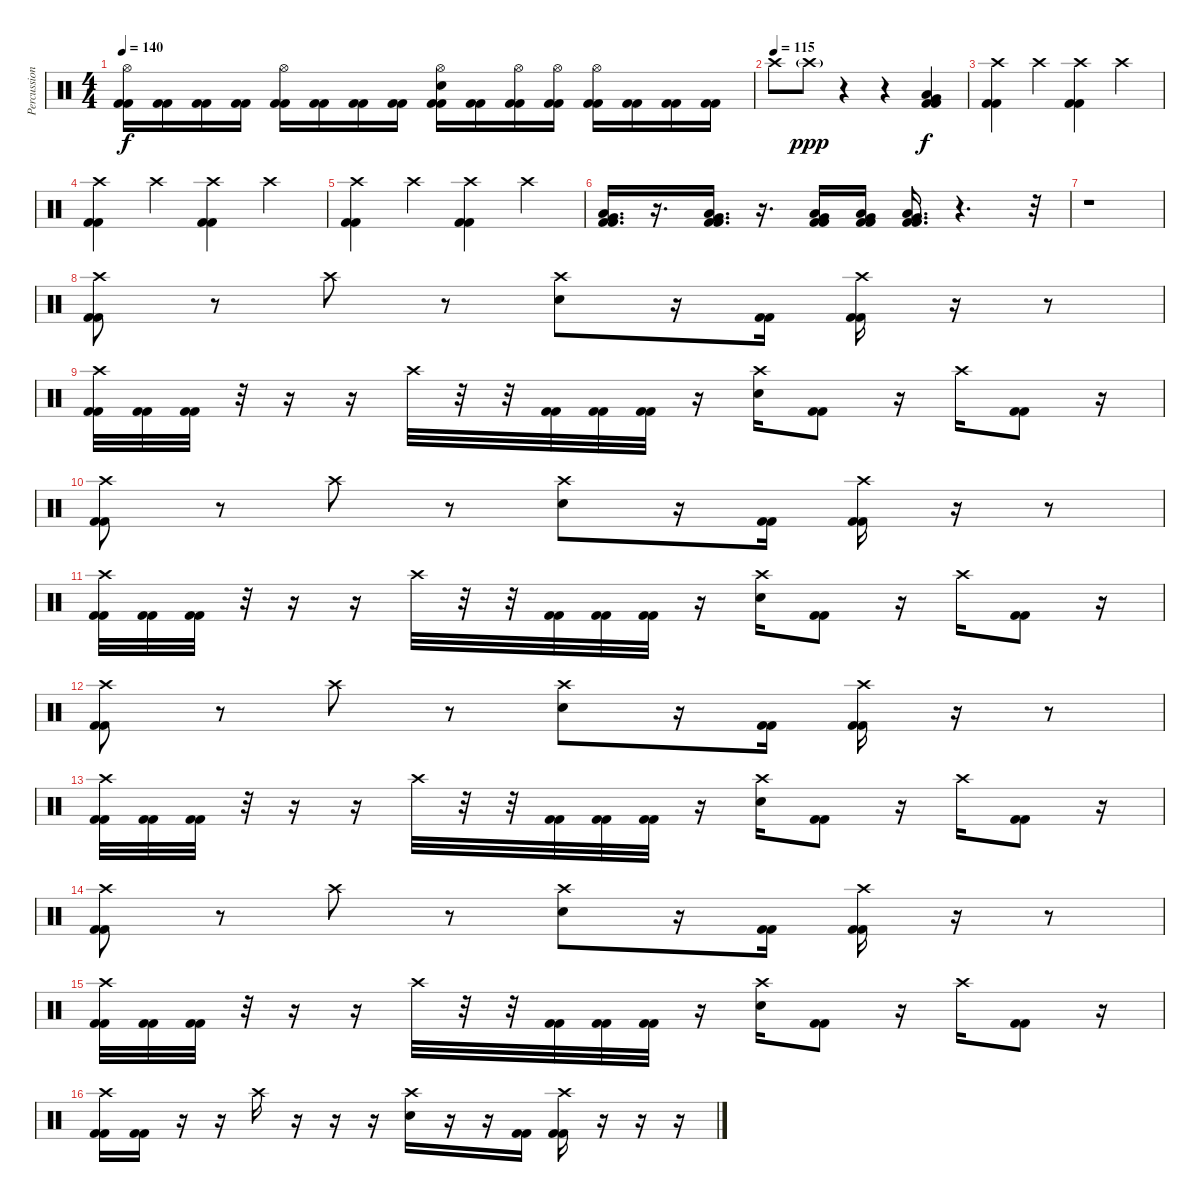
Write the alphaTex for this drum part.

\track ("Percussion" "Percussion") {instrument percussion}
\staff {score}
\articulation defaults
\ts (4 4)
\tempo 140
\clef neutral
\ks c
("Hi-Hat (open)" "Kick (hit) 2" "Kick (hit) 2").16{dy f} ("Kick (hit) 2" "Kick (hit) 2").16 ("Kick (hit) 2" "Kick (hit) 2").16 ("Kick (hit) 2" "Kick (hit) 2").16 ("Hi-Hat (open)" "Kick (hit) 2" "Kick (hit) 2").16 ("Kick (hit) 2" "Kick (hit) 2").16 ("Kick (hit) 2" "Kick (hit) 2").16 ("Kick (hit) 2" "Kick (hit) 2").16 ("Hi-Hat (open)" "Electric Snare (hit)" "Kick (hit) 2" "Kick (hit) 2").16 ("Kick (hit) 2" "Kick (hit) 2").16 ("Hi-Hat (open)" "Kick (hit) 2" "Kick (hit) 2").16 ("Hi-Hat (open)" "Kick (hit) 2" "Kick (hit) 2").16 ("Hi-Hat (open)" "Kick (hit) 2" "Kick (hit) 2").16 ("Kick (hit) 2" "Kick (hit) 2").16 ("Kick (hit) 2" "Kick (hit) 2").16 ("Kick (hit) 2" "Kick (hit) 2").16 |
\tempo (115)
"Crash high (hit)".8 "Crash high (hit)"{g}.8{dy ppp} r.4 r.4 ("Very Low Tom (hit)" "Low Tom (hit)" "Kick (hit) 2" "Kick (hit) 2").4{dy f} |
("Crash high (hit)" "Kick (hit) 2" "Kick (hit) 2").4 "Crash high (hit)".4 ("Crash high (hit)" "Kick (hit) 2" "Kick (hit) 2").4 "Crash high (hit)".4 |
("Crash high (hit)" "Kick (hit) 2" "Kick (hit) 2").4 "Crash high (hit)".4 ("Crash high (hit)" "Kick (hit) 2" "Kick (hit) 2").4 "Crash high (hit)".4 |
("Crash high (hit)" "Kick (hit) 2" "Kick (hit) 2").4 "Crash high (hit)".4 ("Crash high (hit)" "Kick (hit) 2" "Kick (hit) 2").4 "Crash high (hit)".4 |
("Very Low Tom (hit)" "Low Tom (hit)" "Kick (hit) 2" "Kick (hit) 2").16{d} r.16{d} ("Very Low Tom (hit)" "Low Tom (hit)" "Kick (hit) 2" "Kick (hit) 2").16{d} r.16{d} ("Very Low Tom (hit)" "Low Tom (hit)" "Kick (hit) 2" "Kick (hit) 2").16 ("Very Low Tom (hit)" "Low Tom (hit)" "Kick (hit) 2" "Kick (hit) 2").16 ("Very Low Tom (hit)" "Low Tom (hit)" "Kick (hit) 2" "Kick (hit) 2").16{d} r.4{d} r.32 |
r.1 |
("Crash high (hit)" "Kick (hit) 2" "Kick (hit) 2").8 r.8 "Crash high (hit)".8 r.8 ("Crash high (hit)" "Electric Snare (hit)").8 r.16 ("Kick (hit) 2" "Kick (hit) 2").16 ("Crash high (hit)" "Kick (hit) 2" "Kick (hit) 2").16 r.16 r.8 |
("Crash high (hit)" "Kick (hit) 2" "Kick (hit) 2").32 ("Kick (hit) 2" "Kick (hit) 2").32 ("Kick (hit) 2" "Kick (hit) 2").32 r.32 r.16 r.16 "Crash high (hit)".32 r.32 r.32 ("Kick (hit) 2" "Kick (hit) 2").32 ("Kick (hit) 2" "Kick (hit) 2").32 ("Kick (hit) 2" "Kick (hit) 2").32 r.16 ("Crash high (hit)" "Electric Snare (hit)").16 ("Kick (hit) 2" "Kick (hit) 2").8 r.16 "Crash high (hit)".16 ("Kick (hit) 2" "Kick (hit) 2").8 r.16 |
("Crash high (hit)" "Kick (hit) 2" "Kick (hit) 2").8 r.8 "Crash high (hit)".8 r.8 ("Crash high (hit)" "Electric Snare (hit)").8 r.16 ("Kick (hit) 2" "Kick (hit) 2").16 ("Crash high (hit)" "Kick (hit) 2" "Kick (hit) 2").16 r.16 r.8 |
("Crash high (hit)" "Kick (hit) 2" "Kick (hit) 2").32 ("Kick (hit) 2" "Kick (hit) 2").32 ("Kick (hit) 2" "Kick (hit) 2").32 r.32 r.16 r.16 "Crash high (hit)".32 r.32 r.32 ("Kick (hit) 2" "Kick (hit) 2").32 ("Kick (hit) 2" "Kick (hit) 2").32 ("Kick (hit) 2" "Kick (hit) 2").32 r.16 ("Crash high (hit)" "Electric Snare (hit)").16 ("Kick (hit) 2" "Kick (hit) 2").8 r.16 "Crash high (hit)".16 ("Kick (hit) 2" "Kick (hit) 2").8 r.16 |
("Crash high (hit)" "Kick (hit) 2" "Kick (hit) 2").8 r.8 "Crash high (hit)".8 r.8 ("Crash high (hit)" "Electric Snare (hit)").8 r.16 ("Kick (hit) 2" "Kick (hit) 2").16 ("Crash high (hit)" "Kick (hit) 2" "Kick (hit) 2").16 r.16 r.8 |
("Crash high (hit)" "Kick (hit) 2" "Kick (hit) 2").32 ("Kick (hit) 2" "Kick (hit) 2").32 ("Kick (hit) 2" "Kick (hit) 2").32 r.32 r.16 r.16 "Crash high (hit)".32 r.32 r.32 ("Kick (hit) 2" "Kick (hit) 2").32 ("Kick (hit) 2" "Kick (hit) 2").32 ("Kick (hit) 2" "Kick (hit) 2").32 r.16 ("Crash high (hit)" "Electric Snare (hit)").16 ("Kick (hit) 2" "Kick (hit) 2").8 r.16 "Crash high (hit)".16 ("Kick (hit) 2" "Kick (hit) 2").8 r.16 |
("Crash high (hit)" "Kick (hit) 2" "Kick (hit) 2").8 r.8 "Crash high (hit)".8 r.8 ("Crash high (hit)" "Electric Snare (hit)").8 r.16 ("Kick (hit) 2" "Kick (hit) 2").16 ("Crash high (hit)" "Kick (hit) 2" "Kick (hit) 2").16 r.16 r.8 |
("Crash high (hit)" "Kick (hit) 2" "Kick (hit) 2").32 ("Kick (hit) 2" "Kick (hit) 2").32 ("Kick (hit) 2" "Kick (hit) 2").32 r.32 r.16 r.16 "Crash high (hit)".32 r.32 r.32 ("Kick (hit) 2" "Kick (hit) 2").32 ("Kick (hit) 2" "Kick (hit) 2").32 ("Kick (hit) 2" "Kick (hit) 2").32 r.16 ("Crash high (hit)" "Electric Snare (hit)").16 ("Kick (hit) 2" "Kick (hit) 2").8 r.16 "Crash high (hit)".16 ("Kick (hit) 2" "Kick (hit) 2").8 r.16 |
("Crash high (hit)" "Kick (hit) 2" "Kick (hit) 2").16 ("Kick (hit) 2" "Kick (hit) 2").16 r.16 r.16 "Crash high (hit)".16 r.16 r.16 r.16 ("Crash high (hit)" "Electric Snare (hit)").16 r.16 r.16 ("Kick (hit) 2" "Kick (hit) 2").16 ("Crash high (hit)" "Kick (hit) 2" "Kick (hit) 2").16 r.16 r.16 r.16
